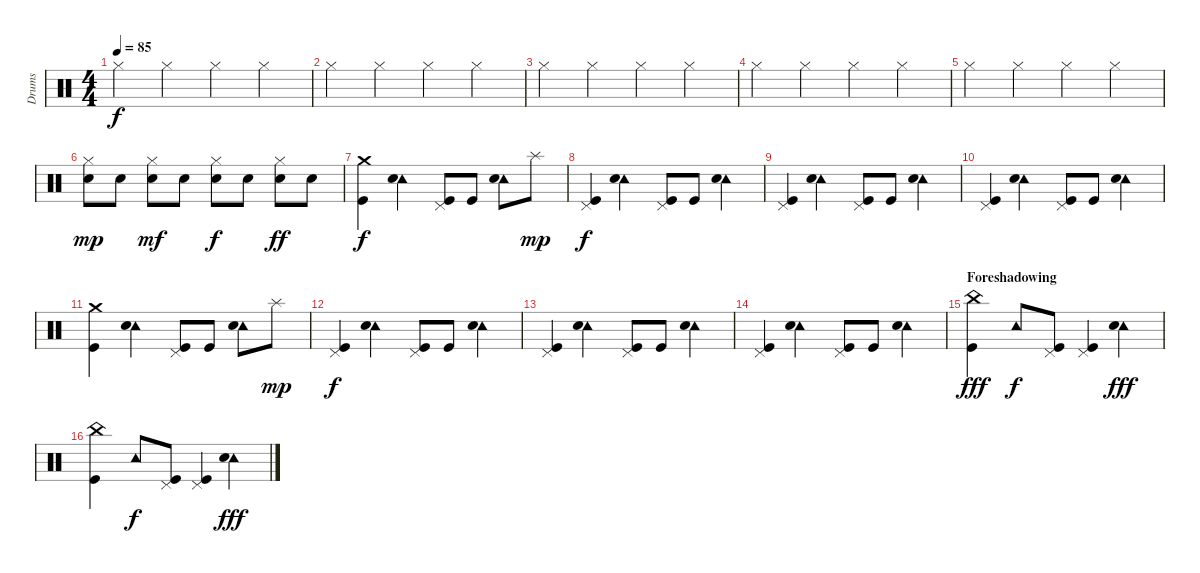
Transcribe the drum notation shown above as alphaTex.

\track ("Drums" "Drums") {instrument percussion}
\staff {score}
\articulation defaults
\ts (4 4)
\tempo 85
\clef neutral
\ks c "Hi-Hat (closed)".4{dy f} "Hi-Hat (closed)".4 "Hi-Hat (closed)".4 "Hi-Hat (closed)".4
|
"Hi-Hat (closed)".4 "Hi-Hat (closed)".4 "Hi-Hat (closed)".4 "Hi-Hat (closed)".4 |
"Hi-Hat (closed)".4 "Hi-Hat (closed)".4 "Hi-Hat (closed)".4 "Hi-Hat (closed)".4 |
"Hi-Hat (closed)".4 "Hi-Hat (closed)".4 "Hi-Hat (closed)".4 "Hi-Hat (closed)".4 |
"Hi-Hat (closed)".4 "Hi-Hat (closed)".4 "Hi-Hat (closed)".4 "Hi-Hat (closed)".4 |
("Electric Snare (hit)" "Hi-Hat (closed)").8{dy mp} "Electric Snare (hit)".8 ("Electric Snare (hit)" "Hi-Hat (closed)").8{dy mf} "Electric Snare (hit)".8 ("Electric Snare (hit)" "Hi-Hat (closed)").8{dy f} "Electric Snare (hit)".8 ("Electric Snare (hit)" "Hi-Hat (closed)").8{dy ff} "Electric Snare (hit)".8 |
("Crash medium (hit)" "Kick (hit)").4{dy f} ("Tambourine (hit)" "Electric Snare (hit)").4 ("Pedal Hi-Hat (hit)" "Kick (hit)").8 "Kick (hit)".8 ("Tambourine (hit)" "Electric Snare (hit)").8 "Splash (hit)".8{dy mp} |
("Pedal Hi-Hat (hit)" "Kick (hit)").4{dy f} ("Tambourine (hit)" "Electric Snare (hit)").4 ("Pedal Hi-Hat (hit)" "Kick (hit)").8 "Kick (hit)".8 ("Tambourine (hit)" "Electric Snare (hit)").4 |
("Pedal Hi-Hat (hit)" "Kick (hit)").4 ("Tambourine (hit)" "Electric Snare (hit)").4 ("Pedal Hi-Hat (hit)" "Kick (hit)").8 "Kick (hit)".8 ("Tambourine (hit)" "Electric Snare (hit)").4 |
("Pedal Hi-Hat (hit)" "Kick (hit)").4 ("Tambourine (hit)" "Electric Snare (hit)").4 ("Pedal Hi-Hat (hit)" "Kick (hit)").8 "Kick (hit)".8 ("Tambourine (hit)" "Electric Snare (hit)").4 |
("Crash medium (hit)" "Kick (hit)").4 ("Tambourine (hit)" "Electric Snare (hit)").4 ("Pedal Hi-Hat (hit)" "Kick (hit)").8 "Kick (hit)".8 ("Tambourine (hit)" "Electric Snare (hit)").8 "Splash (hit)".8{dy mp} |
("Pedal Hi-Hat (hit)" "Kick (hit)").4{dy f} ("Tambourine (hit)" "Electric Snare (hit)").4 ("Pedal Hi-Hat (hit)" "Kick (hit)").8 "Kick (hit)".8 ("Tambourine (hit)" "Electric Snare (hit)").4 |
("Pedal Hi-Hat (hit)" "Kick (hit)").4 ("Tambourine (hit)" "Electric Snare (hit)").4 ("Pedal Hi-Hat (hit)" "Kick (hit)").8 "Kick (hit)".8 ("Tambourine (hit)" "Electric Snare (hit)").4 |
("Pedal Hi-Hat (hit)" "Kick (hit)").4 ("Tambourine (hit)" "Electric Snare (hit)").4 ("Pedal Hi-Hat (hit)" "Kick (hit)").8 "Kick (hit)".8 ("Tambourine (hit)" "Electric Snare (hit)").4 |
\section ("" "Foreshadowing")
("China (hit)" "Kick (hit)").4{dy fff} "Tambourine (hit)".8{dy f} ("Pedal Hi-Hat (hit)" "Kick (hit)").8 ("Pedal Hi-Hat (hit)" "Kick (hit)").4 ("Tambourine (hit)" "Electric Snare (hit)").4{dy fff} |
("China (hit)" "Kick (hit)").4 "Tambourine (hit)".8{dy f} ("Pedal Hi-Hat (hit)" "Kick (hit)").8 ("Pedal Hi-Hat (hit)" "Kick (hit)").4 ("Tambourine (hit)" "Electric Snare (hit)").4{dy fff}
